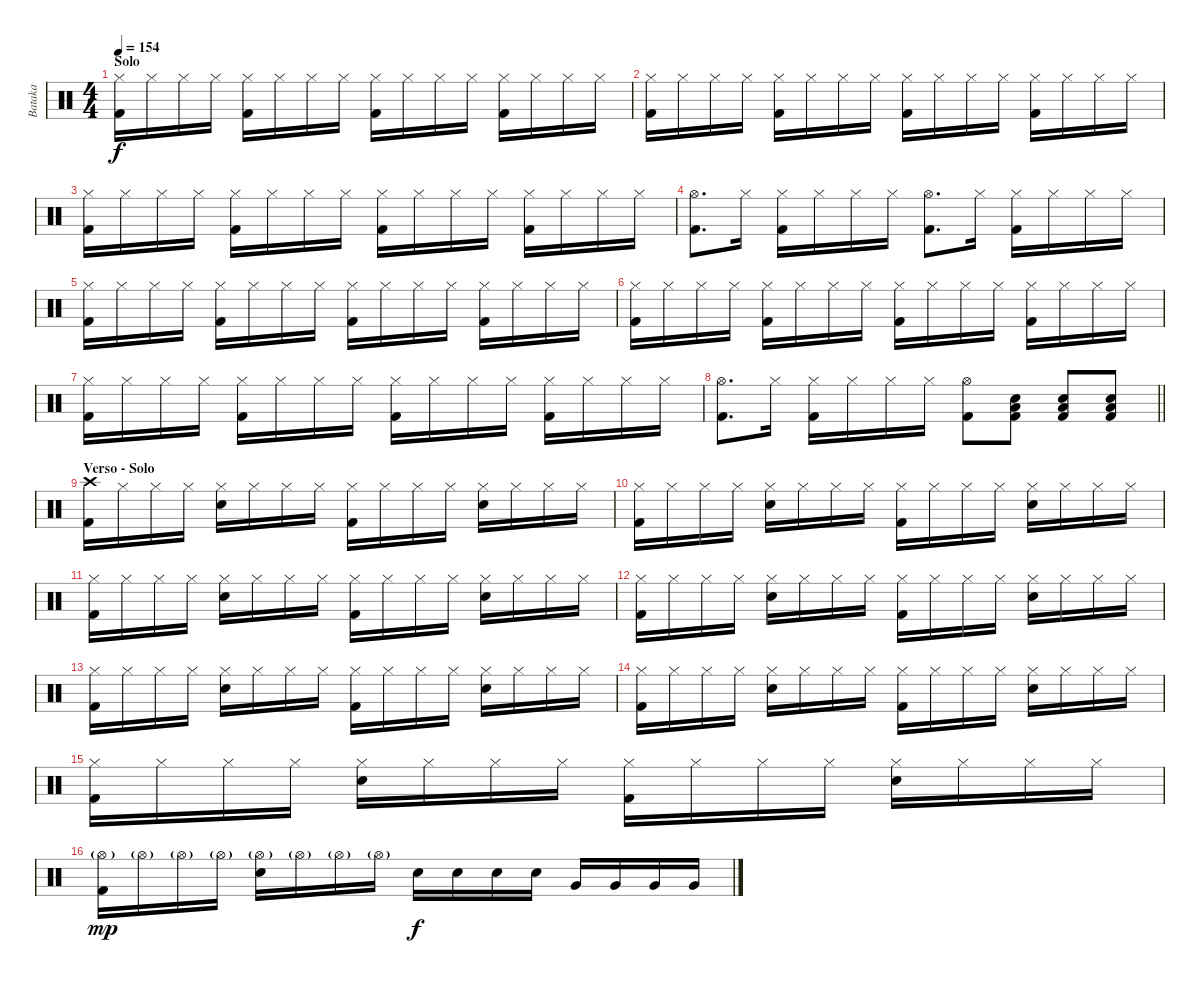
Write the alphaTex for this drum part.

\track ("Bataka" "Bataka") {instrument percussion}
\staff {score}
\articulation defaults
\ts (4 4)
\section ("" "Solo")
\tempo 154
\clef neutral
\ks c
("Hi-Hat (closed)" "Kick (hit) 2").16{dy f} "Hi-Hat (closed)".16 "Hi-Hat (closed)".16 "Hi-Hat (closed)".16 ("Hi-Hat (closed)" "Kick (hit) 2").16 "Hi-Hat (closed)".16 "Hi-Hat (closed)".16 "Hi-Hat (closed)".16 ("Hi-Hat (closed)" "Kick (hit) 2").16 "Hi-Hat (closed)".16 "Hi-Hat (closed)".16 "Hi-Hat (closed)".16 ("Hi-Hat (closed)" "Kick (hit) 2").16 "Hi-Hat (closed)".16 "Hi-Hat (closed)".16 "Hi-Hat (closed)".16 |
("Hi-Hat (closed)" "Kick (hit) 2").16 "Hi-Hat (closed)".16 "Hi-Hat (closed)".16 "Hi-Hat (closed)".16 ("Hi-Hat (closed)" "Kick (hit) 2").16 "Hi-Hat (closed)".16 "Hi-Hat (closed)".16 "Hi-Hat (closed)".16 ("Hi-Hat (closed)" "Kick (hit) 2").16 "Hi-Hat (closed)".16 "Hi-Hat (closed)".16 "Hi-Hat (closed)".16 ("Hi-Hat (closed)" "Kick (hit) 2").16 "Hi-Hat (closed)".16 "Hi-Hat (closed)".16 "Hi-Hat (closed)".16 |
("Hi-Hat (closed)" "Kick (hit) 2").16 "Hi-Hat (closed)".16 "Hi-Hat (closed)".16 "Hi-Hat (closed)".16 ("Hi-Hat (closed)" "Kick (hit) 2").16 "Hi-Hat (closed)".16 "Hi-Hat (closed)".16 "Hi-Hat (closed)".16 ("Hi-Hat (closed)" "Kick (hit) 2").16 "Hi-Hat (closed)".16 "Hi-Hat (closed)".16 "Hi-Hat (closed)".16 ("Hi-Hat (closed)" "Kick (hit) 2").16 "Hi-Hat (closed)".16 "Hi-Hat (closed)".16 "Hi-Hat (closed)".16 |
("Hi-Hat (open)" "Kick (hit) 2").8{d} "Hi-Hat (closed)".16 ("Hi-Hat (closed)" "Kick (hit) 2").16 "Hi-Hat (closed)".16 "Hi-Hat (closed)".16 "Hi-Hat (closed)".16 ("Hi-Hat (open)" "Kick (hit) 2").8{d} "Hi-Hat (closed)".16 ("Hi-Hat (closed)" "Kick (hit) 2").16 "Hi-Hat (closed)".16 "Hi-Hat (closed)".16 "Hi-Hat (closed)".16 |
("Hi-Hat (closed)" "Kick (hit) 2").16 "Hi-Hat (closed)".16 "Hi-Hat (closed)".16 "Hi-Hat (closed)".16 ("Hi-Hat (closed)" "Kick (hit) 2").16 "Hi-Hat (closed)".16 "Hi-Hat (closed)".16 "Hi-Hat (closed)".16 ("Hi-Hat (closed)" "Kick (hit) 2").16 "Hi-Hat (closed)".16 "Hi-Hat (closed)".16 "Hi-Hat (closed)".16 ("Hi-Hat (closed)" "Kick (hit) 2").16 "Hi-Hat (closed)".16 "Hi-Hat (closed)".16 "Hi-Hat (closed)".16 |
("Hi-Hat (closed)" "Kick (hit) 2").16 "Hi-Hat (closed)".16 "Hi-Hat (closed)".16 "Hi-Hat (closed)".16 ("Hi-Hat (closed)" "Kick (hit) 2").16 "Hi-Hat (closed)".16 "Hi-Hat (closed)".16 "Hi-Hat (closed)".16 ("Hi-Hat (closed)" "Kick (hit) 2").16 "Hi-Hat (closed)".16 "Hi-Hat (closed)".16 "Hi-Hat (closed)".16 ("Hi-Hat (closed)" "Kick (hit) 2").16 "Hi-Hat (closed)".16 "Hi-Hat (closed)".16 "Hi-Hat (closed)".16 |
("Hi-Hat (closed)" "Kick (hit) 2").16 "Hi-Hat (closed)".16 "Hi-Hat (closed)".16 "Hi-Hat (closed)".16 ("Hi-Hat (closed)" "Kick (hit) 2").16 "Hi-Hat (closed)".16 "Hi-Hat (closed)".16 "Hi-Hat (closed)".16 ("Hi-Hat (closed)" "Kick (hit) 2").16 "Hi-Hat (closed)".16 "Hi-Hat (closed)".16 "Hi-Hat (closed)".16 ("Hi-Hat (closed)" "Kick (hit) 2").16 "Hi-Hat (closed)".16 "Hi-Hat (closed)".16 "Hi-Hat (closed)".16 |
\barLineRight lightlight
("Hi-Hat (open)" "Kick (hit) 2").8{d} "Hi-Hat (closed)".16 ("Hi-Hat (closed)" "Kick (hit) 2").16 "Hi-Hat (closed)".16 "Hi-Hat (closed)".16 "Hi-Hat (closed)".16 ("Hi-Hat (open)" "Kick (hit) 2").8 ("Low Floor Tom (hit)" "Electric Snare (hit)" "Kick (hit) 2").8 ("Low Floor Tom (hit)" "Electric Snare (hit)" "Kick (hit) 2").8 ("Low Floor Tom (hit)" "Electric Snare (hit)" "Kick (hit) 2").8 |
\section ("" "Verso - Solo")
("Crash high (hit)" "Kick (hit) 2").16 "Hi-Hat (closed)".16 "Hi-Hat (closed)".16 "Hi-Hat (closed)".16 ("Hi-Hat (closed)" "Electric Snare (hit)").16 "Hi-Hat (closed)".16 "Hi-Hat (closed)".16 "Hi-Hat (closed)".16 ("Hi-Hat (closed)" "Kick (hit) 2").16 "Hi-Hat (closed)".16 "Hi-Hat (closed)".16 "Hi-Hat (closed)".16 ("Hi-Hat (closed)" "Electric Snare (hit)").16 "Hi-Hat (closed)".16 "Hi-Hat (closed)".16 "Hi-Hat (closed)".16 |
("Hi-Hat (closed)" "Kick (hit) 2").16 "Hi-Hat (closed)".16 "Hi-Hat (closed)".16 "Hi-Hat (closed)".16 ("Hi-Hat (closed)" "Electric Snare (hit)").16 "Hi-Hat (closed)".16 "Hi-Hat (closed)".16 "Hi-Hat (closed)".16 ("Hi-Hat (closed)" "Kick (hit) 2").16 "Hi-Hat (closed)".16 "Hi-Hat (closed)".16 "Hi-Hat (closed)".16 ("Hi-Hat (closed)" "Electric Snare (hit)").16 "Hi-Hat (closed)".16 "Hi-Hat (closed)".16 "Hi-Hat (closed)".16 |
("Hi-Hat (closed)" "Kick (hit) 2").16 "Hi-Hat (closed)".16 "Hi-Hat (closed)".16 "Hi-Hat (closed)".16 ("Hi-Hat (closed)" "Electric Snare (hit)").16 "Hi-Hat (closed)".16 "Hi-Hat (closed)".16 "Hi-Hat (closed)".16 ("Hi-Hat (closed)" "Kick (hit) 2").16 "Hi-Hat (closed)".16 "Hi-Hat (closed)".16 "Hi-Hat (closed)".16 ("Hi-Hat (closed)" "Electric Snare (hit)").16 "Hi-Hat (closed)".16 "Hi-Hat (closed)".16 "Hi-Hat (closed)".16 |
("Hi-Hat (closed)" "Kick (hit) 2").16 "Hi-Hat (closed)".16 "Hi-Hat (closed)".16 "Hi-Hat (closed)".16 ("Hi-Hat (closed)" "Electric Snare (hit)").16 "Hi-Hat (closed)".16 "Hi-Hat (closed)".16 "Hi-Hat (closed)".16 ("Hi-Hat (closed)" "Kick (hit) 2").16 "Hi-Hat (closed)".16 "Hi-Hat (closed)".16 "Hi-Hat (closed)".16 ("Hi-Hat (closed)" "Electric Snare (hit)").16 "Hi-Hat (closed)".16 "Hi-Hat (closed)".16 "Hi-Hat (closed)".16 |
("Hi-Hat (closed)" "Kick (hit) 2").16 "Hi-Hat (closed)".16 "Hi-Hat (closed)".16 "Hi-Hat (closed)".16 ("Hi-Hat (closed)" "Electric Snare (hit)").16 "Hi-Hat (closed)".16 "Hi-Hat (closed)".16 "Hi-Hat (closed)".16 ("Hi-Hat (closed)" "Kick (hit) 2").16 "Hi-Hat (closed)".16 "Hi-Hat (closed)".16 "Hi-Hat (closed)".16 ("Hi-Hat (closed)" "Electric Snare (hit)").16 "Hi-Hat (closed)".16 "Hi-Hat (closed)".16 "Hi-Hat (closed)".16 |
("Hi-Hat (closed)" "Kick (hit) 2").16 "Hi-Hat (closed)".16 "Hi-Hat (closed)".16 "Hi-Hat (closed)".16 ("Hi-Hat (closed)" "Electric Snare (hit)").16 "Hi-Hat (closed)".16 "Hi-Hat (closed)".16 "Hi-Hat (closed)".16 ("Hi-Hat (closed)" "Kick (hit) 2").16 "Hi-Hat (closed)".16 "Hi-Hat (closed)".16 "Hi-Hat (closed)".16 ("Hi-Hat (closed)" "Electric Snare (hit)").16 "Hi-Hat (closed)".16 "Hi-Hat (closed)".16 "Hi-Hat (closed)".16 |
("Hi-Hat (closed)" "Kick (hit) 2").16 "Hi-Hat (closed)".16 "Hi-Hat (closed)".16 "Hi-Hat (closed)".16 ("Hi-Hat (closed)" "Electric Snare (hit)").16 "Hi-Hat (closed)".16 "Hi-Hat (closed)".16 "Hi-Hat (closed)".16 ("Hi-Hat (closed)" "Kick (hit) 2").16 "Hi-Hat (closed)".16 "Hi-Hat (closed)".16 "Hi-Hat (closed)".16 ("Hi-Hat (closed)" "Electric Snare (hit)").16 "Hi-Hat (closed)".16 "Hi-Hat (closed)".16 "Hi-Hat (closed)".16 |
("Hi-Hat (open)"{g} "Kick (hit) 2").16{dy mp} "Hi-Hat (open)"{g}.16 "Hi-Hat (open)"{g}.16 "Hi-Hat (open)"{g}.16 ("Hi-Hat (open)"{g} "Electric Snare (hit)").16 "Hi-Hat (open)"{g}.16 "Hi-Hat (open)"{g}.16 "Hi-Hat (open)"{g}.16 "Electric Snare (hit)".16{dy f} "Electric Snare (hit)".16 "Electric Snare (hit)".16 "Electric Snare (hit)".16 "Very Low Tom (hit)".16 "Very Low Tom (hit)".16 "Very Low Tom (hit)".16 "Very Low Tom (hit)".16
